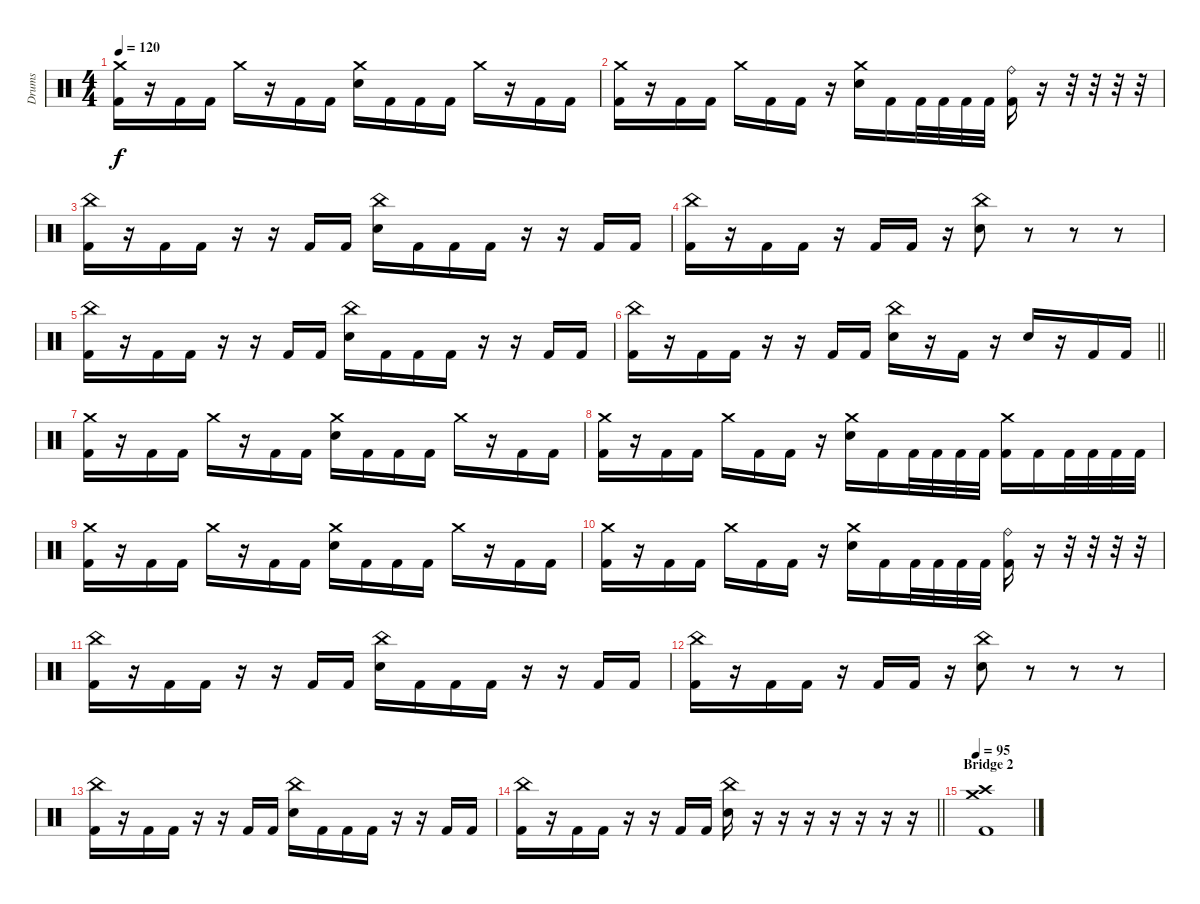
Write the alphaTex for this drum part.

\track ("Drums" "Drums") {instrument percussion}
\staff {score}
\articulation defaults
\ts (4 4)
\tempo 120
\clef neutral
\ks c
("Crash medium (hit)" "Kick (hit) 2").16{dy f} r.16 "Kick (hit) 2".16 "Kick (hit) 2".16 "Crash medium (hit)".16 r.16 "Kick (hit) 2".16 "Kick (hit) 2".16 ("Crash medium (hit)" "Electric Snare (hit)").16 "Kick (hit) 2".16 "Kick (hit) 2".16 "Kick (hit) 2".16 "Crash medium (hit)".16 r.16 "Kick (hit) 2".16 "Kick (hit) 2".16 |
("Crash medium (hit)" "Kick (hit) 2").16 r.16 "Kick (hit) 2".16 "Kick (hit) 2".16 "Crash medium (hit)".16 "Kick (hit) 2".16 "Kick (hit) 2".16 r.16 ("Crash medium (hit)" "Electric Snare (hit)").16 "Kick (hit) 2".16 "Kick (hit) 2".32 "Kick (hit) 2".32 "Kick (hit) 2".32 "Kick (hit) 2".32 ("Ride (bell)" "Kick (hit) 2").16 r.16 r.32 r.32 r.32 r.32 |
("China (hit)" "Kick (hit) 2").16 r.16 "Kick (hit) 2".16 "Kick (hit) 2".16 r.16 r.16 "Kick (hit) 2".16 "Kick (hit) 2".16 ("China (hit)" "Electric Snare (hit)").16 "Kick (hit) 2".16 "Kick (hit) 2".16 "Kick (hit) 2".16 r.16 r.16 "Kick (hit) 2".16 "Kick (hit) 2".16 |
("China (hit)" "Kick (hit) 2").16 r.16 "Kick (hit) 2".16 "Kick (hit) 2".16 r.16 "Kick (hit) 2".16 "Kick (hit) 2".16 r.16 ("China (hit)" "Electric Snare (hit)").8 r.8 r.8 r.8 |
("China (hit)" "Kick (hit) 2").16 r.16 "Kick (hit) 2".16 "Kick (hit) 2".16 r.16 r.16 "Kick (hit) 2".16 "Kick (hit) 2".16 ("China (hit)" "Electric Snare (hit)").16 "Kick (hit) 2".16 "Kick (hit) 2".16 "Kick (hit) 2".16 r.16 r.16 "Kick (hit) 2".16 "Kick (hit) 2".16 |
\barLineRight lightlight
("China (hit)" "Kick (hit) 2").16 r.16 "Kick (hit) 2".16 "Kick (hit) 2".16 r.16 r.16 "Kick (hit) 2".16 "Kick (hit) 2".16 ("China (hit)" "Electric Snare (hit)").16 r.16 "Kick (hit) 2".16 r.16 "Electric Snare (hit)".16 r.16 "Kick (hit) 2".16 "Kick (hit) 2".16 |
\section ("" "")
("Crash medium (hit)" "Kick (hit) 2").16 r.16 "Kick (hit) 2".16 "Kick (hit) 2".16 "Crash medium (hit)".16 r.16 "Kick (hit) 2".16 "Kick (hit) 2".16 ("Crash medium (hit)" "Electric Snare (hit)").16 "Kick (hit) 2".16 "Kick (hit) 2".16 "Kick (hit) 2".16 "Crash medium (hit)".16 r.16 "Kick (hit) 2".16 "Kick (hit) 2".16 |
("Crash medium (hit)" "Kick (hit) 2").16 r.16 "Kick (hit) 2".16 "Kick (hit) 2".16 "Crash medium (hit)".16 "Kick (hit) 2".16 "Kick (hit) 2".16 r.16 ("Crash medium (hit)" "Electric Snare (hit)").16 "Kick (hit) 2".16 "Kick (hit) 2".32 "Kick (hit) 2".32 "Kick (hit) 2".32 "Kick (hit) 2".32 ("Crash medium (hit)" "Kick (hit) 2").16 "Kick (hit) 2".16 "Kick (hit) 2".32 "Kick (hit) 2".32 "Kick (hit) 2".32 "Kick (hit) 2".32 |
("Crash medium (hit)" "Kick (hit) 2").16 r.16 "Kick (hit) 2".16 "Kick (hit) 2".16 "Crash medium (hit)".16 r.16 "Kick (hit) 2".16 "Kick (hit) 2".16 ("Crash medium (hit)" "Electric Snare (hit)").16 "Kick (hit) 2".16 "Kick (hit) 2".16 "Kick (hit) 2".16 "Crash medium (hit)".16 r.16 "Kick (hit) 2".16 "Kick (hit) 2".16 |
("Crash medium (hit)" "Kick (hit) 2").16 r.16 "Kick (hit) 2".16 "Kick (hit) 2".16 "Crash medium (hit)".16 "Kick (hit) 2".16 "Kick (hit) 2".16 r.16 ("Crash medium (hit)" "Electric Snare (hit)").16 "Kick (hit) 2".16 "Kick (hit) 2".32 "Kick (hit) 2".32 "Kick (hit) 2".32 "Kick (hit) 2".32 ("Ride (bell)" "Kick (hit) 2").16 r.16 r.32 r.32 r.32 r.32 |
("China (hit)" "Kick (hit) 2").16 r.16 "Kick (hit) 2".16 "Kick (hit) 2".16 r.16 r.16 "Kick (hit) 2".16 "Kick (hit) 2".16 ("China (hit)" "Electric Snare (hit)").16 "Kick (hit) 2".16 "Kick (hit) 2".16 "Kick (hit) 2".16 r.16 r.16 "Kick (hit) 2".16 "Kick (hit) 2".16 |
("China (hit)" "Kick (hit) 2").16 r.16 "Kick (hit) 2".16 "Kick (hit) 2".16 r.16 "Kick (hit) 2".16 "Kick (hit) 2".16 r.16 ("China (hit)" "Electric Snare (hit)").8 r.8 r.8 r.8 |
("China (hit)" "Kick (hit) 2").16 r.16 "Kick (hit) 2".16 "Kick (hit) 2".16 r.16 r.16 "Kick (hit) 2".16 "Kick (hit) 2".16 ("China (hit)" "Electric Snare (hit)").16 "Kick (hit) 2".16 "Kick (hit) 2".16 "Kick (hit) 2".16 r.16 r.16 "Kick (hit) 2".16 "Kick (hit) 2".16 |
\barLineRight lightlight
("China (hit)" "Kick (hit) 2").16 r.16 "Kick (hit) 2".16 "Kick (hit) 2".16 r.16 r.16 "Kick (hit) 2".16 "Kick (hit) 2".16 ("China (hit)" "Electric Snare (hit)").16 r.16 r.16 r.16 r.16 r.16 r.16 r.16 |
\section ("" "Bridge 2")
\tempo 95
("Crash medium (hit)" "Crash high (hit)" "Kick (hit) 2").1
